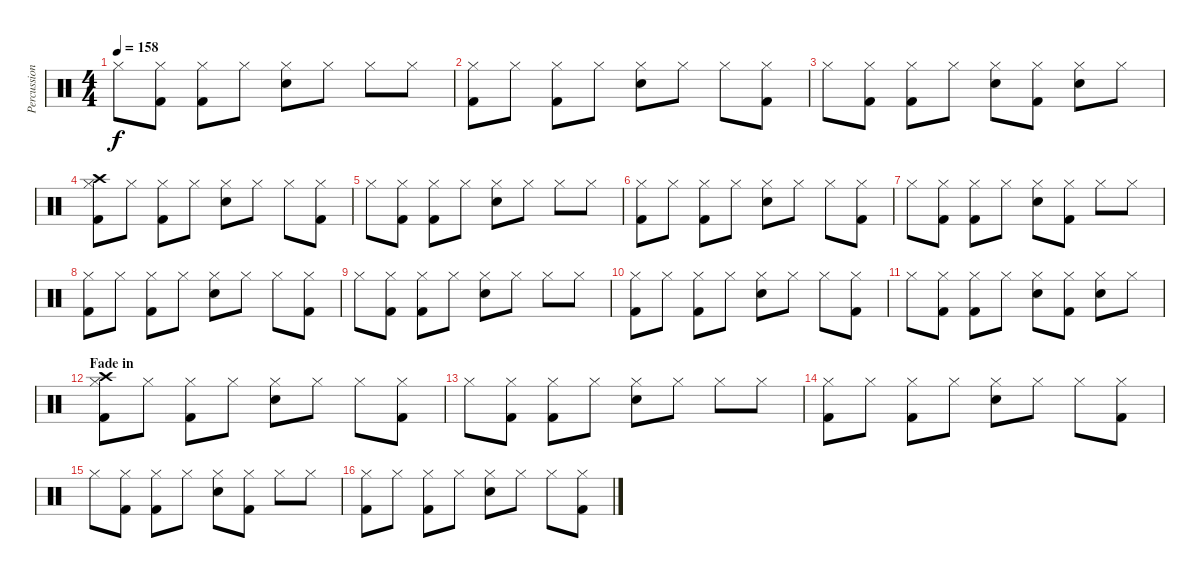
\track ("Percussion" "Percussion") {instrument percussion}
\staff {score}
\articulation defaults
\ts (4 4)
\tempo 158
\clef neutral
\ks c "Hi-Hat (closed)".8{dy f}
("Hi-Hat (closed)" "Kick (hit) 2").8 ("Hi-Hat (closed)" "Kick (hit) 2").8 "Hi-Hat (closed)".8 ("Hi-Hat (closed)" "Electric Snare (hit)").8 "Hi-Hat (closed)".8 "Hi-Hat (closed)".8 "Hi-Hat (closed)".8 |
("Hi-Hat (closed)" "Kick (hit) 2").8 "Hi-Hat (closed)".8 ("Hi-Hat (closed)" "Kick (hit) 2").8 "Hi-Hat (closed)".8 ("Hi-Hat (closed)" "Snare (hit) 2").8 "Hi-Hat (closed)".8 "Hi-Hat (closed)".8 ("Hi-Hat (closed)" "Kick (hit) 2").8 |
"Hi-Hat (closed)".8 ("Hi-Hat (closed)" "Kick (hit) 2").8 ("Hi-Hat (closed)" "Kick (hit) 2").8 "Hi-Hat (closed)".8 ("Hi-Hat (closed)" "Electric Snare (hit)").8 ("Hi-Hat (closed)" "Kick (hit) 2").8 ("Hi-Hat (closed)" "Electric Snare (hit)").8 "Hi-Hat (closed)".8 |
("Hi-Hat (closed)" "Kick (hit) 2" "Crash high (hit)").8 "Hi-Hat (closed)".8 ("Hi-Hat (closed)" "Kick (hit) 2").8 "Hi-Hat (closed)".8 ("Hi-Hat (closed)" "Electric Snare (hit)").8 "Hi-Hat (closed)".8 "Hi-Hat (closed)".8 ("Hi-Hat (closed)" "Kick (hit) 2").8 |
"Hi-Hat (closed)".8 ("Hi-Hat (closed)" "Kick (hit) 2").8 ("Hi-Hat (closed)" "Kick (hit) 2").8 "Hi-Hat (closed)".8 ("Hi-Hat (closed)" "Electric Snare (hit)").8 "Hi-Hat (closed)".8 "Hi-Hat (closed)".8 "Hi-Hat (closed)".8 |
("Hi-Hat (closed)" "Kick (hit) 2").8 "Hi-Hat (closed)".8 ("Hi-Hat (closed)" "Kick (hit) 2").8 "Hi-Hat (closed)".8 ("Hi-Hat (closed)" "Electric Snare (hit)").8 "Hi-Hat (closed)".8 "Hi-Hat (closed)".8 ("Hi-Hat (closed)" "Kick (hit) 2").8 |
"Hi-Hat (closed)".8 ("Hi-Hat (closed)" "Kick (hit) 2").8 ("Hi-Hat (closed)" "Kick (hit) 2").8 "Hi-Hat (closed)".8 ("Hi-Hat (closed)" "Electric Snare (hit)").8 ("Hi-Hat (closed)" "Kick (hit) 2").8 "Hi-Hat (closed)".8 "Hi-Hat (closed)".8 |
("Hi-Hat (closed)" "Kick (hit) 2").8 "Hi-Hat (closed)".8 ("Hi-Hat (closed)" "Kick (hit) 2").8 "Hi-Hat (closed)".8 ("Hi-Hat (closed)" "Electric Snare (hit)").8 "Hi-Hat (closed)".8 "Hi-Hat (closed)".8 ("Hi-Hat (closed)" "Kick (hit) 2").8 |
"Hi-Hat (closed)".8 ("Hi-Hat (closed)" "Kick (hit) 2").8 ("Hi-Hat (closed)" "Kick (hit) 2").8 "Hi-Hat (closed)".8 ("Hi-Hat (closed)" "Electric Snare (hit)").8 "Hi-Hat (closed)".8 "Hi-Hat (closed)".8 "Hi-Hat (closed)".8 |
("Hi-Hat (closed)" "Kick (hit) 2").8 "Hi-Hat (closed)".8 ("Hi-Hat (closed)" "Kick (hit) 2").8 "Hi-Hat (closed)".8 ("Hi-Hat (closed)" "Snare (hit) 2").8 "Hi-Hat (closed)".8 "Hi-Hat (closed)".8 ("Hi-Hat (closed)" "Kick (hit) 2").8 |
"Hi-Hat (closed)".8 ("Hi-Hat (closed)" "Kick (hit) 2").8 ("Hi-Hat (closed)" "Kick (hit) 2").8 "Hi-Hat (closed)".8 ("Hi-Hat (closed)" "Electric Snare (hit)").8 ("Hi-Hat (closed)" "Kick (hit) 2").8 ("Hi-Hat (closed)" "Electric Snare (hit)").8 "Hi-Hat (closed)".8 |
\section ("" "Fade in")
("Hi-Hat (closed)" "Kick (hit) 2" "Crash high (hit)").8 "Hi-Hat (closed)".8 ("Hi-Hat (closed)" "Kick (hit) 2").8 "Hi-Hat (closed)".8 ("Hi-Hat (closed)" "Electric Snare (hit)").8 "Hi-Hat (closed)".8 "Hi-Hat (closed)".8 ("Hi-Hat (closed)" "Kick (hit) 2").8 |
"Hi-Hat (closed)".8 ("Hi-Hat (closed)" "Kick (hit) 2").8 ("Hi-Hat (closed)" "Kick (hit) 2").8 "Hi-Hat (closed)".8 ("Hi-Hat (closed)" "Electric Snare (hit)").8 "Hi-Hat (closed)".8 "Hi-Hat (closed)".8 "Hi-Hat (closed)".8 |
("Hi-Hat (closed)" "Kick (hit) 2").8 "Hi-Hat (closed)".8 ("Hi-Hat (closed)" "Kick (hit) 2").8 "Hi-Hat (closed)".8 ("Hi-Hat (closed)" "Electric Snare (hit)").8 "Hi-Hat (closed)".8 "Hi-Hat (closed)".8 ("Hi-Hat (closed)" "Kick (hit) 2").8 |
"Hi-Hat (closed)".8 ("Hi-Hat (closed)" "Kick (hit) 2").8 ("Hi-Hat (closed)" "Kick (hit) 2").8 "Hi-Hat (closed)".8 ("Hi-Hat (closed)" "Electric Snare (hit)").8 ("Hi-Hat (closed)" "Kick (hit) 2").8 "Hi-Hat (closed)".8 "Hi-Hat (closed)".8 |
("Hi-Hat (closed)" "Kick (hit) 2").8 "Hi-Hat (closed)".8 ("Hi-Hat (closed)" "Kick (hit) 2").8 "Hi-Hat (closed)".8 ("Hi-Hat (closed)" "Electric Snare (hit)").8 "Hi-Hat (closed)".8 "Hi-Hat (closed)".8 ("Hi-Hat (closed)" "Kick (hit) 2").8
